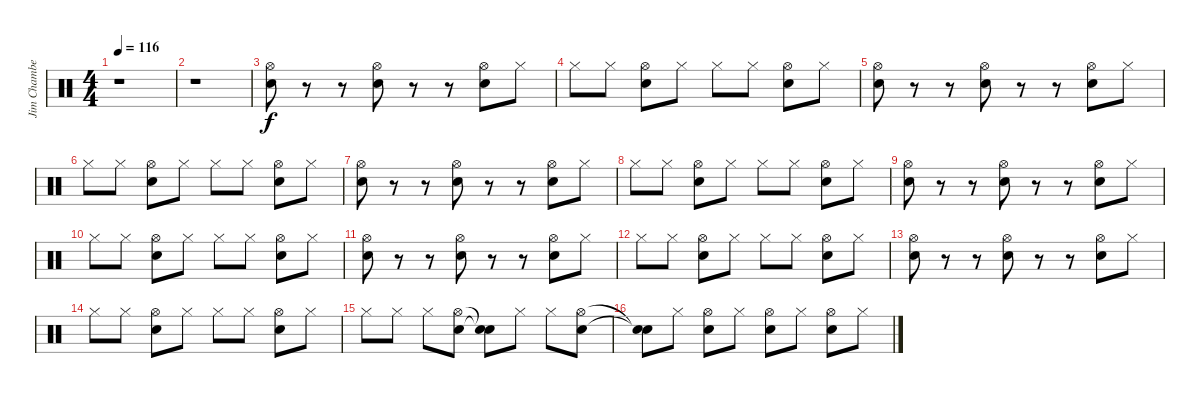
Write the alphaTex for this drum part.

\track ("Jim Chamberlin" "Jim Chambe") {instrument percussion}
\staff {score}
\articulation defaults
\ts (4 4)
\tempo 116
\clef neutral
\ks c
r.1{dy f} |
r.1 |
("Hi-Hat (open)" "Snare (hit) 2").8 r.8 r.8 ("Hi-Hat (open)" "Snare (hit) 2").8 r.8 r.8 ("Hi-Hat (open)" "Snare (hit) 2").8 "Hi-Hat (closed)".8 |
"Hi-Hat (closed)".8 "Hi-Hat (closed)".8 ("Hi-Hat (open)" "Snare (hit) 2").8 "Hi-Hat (closed)".8 "Hi-Hat (closed)".8 "Hi-Hat (closed)".8 ("Hi-Hat (open)" "Snare (hit) 2").8 "Hi-Hat (closed)".8 |
("Hi-Hat (open)" "Snare (hit) 2").8 r.8 r.8 ("Hi-Hat (open)" "Snare (hit) 2").8 r.8 r.8 ("Hi-Hat (open)" "Snare (hit) 2").8 "Hi-Hat (closed)".8 |
"Hi-Hat (closed)".8 "Hi-Hat (closed)".8 ("Hi-Hat (open)" "Snare (hit) 2").8 "Hi-Hat (closed)".8 "Hi-Hat (closed)".8 "Hi-Hat (closed)".8 ("Hi-Hat (open)" "Snare (hit) 2").8 "Hi-Hat (closed)".8 |
("Hi-Hat (open)" "Snare (hit) 2").8 r.8 r.8 ("Hi-Hat (open)" "Snare (hit) 2").8 r.8 r.8 ("Hi-Hat (open)" "Snare (hit) 2").8 "Hi-Hat (closed)".8 |
"Hi-Hat (closed)".8 "Hi-Hat (closed)".8 ("Hi-Hat (open)" "Snare (hit) 2").8 "Hi-Hat (closed)".8 "Hi-Hat (closed)".8 "Hi-Hat (closed)".8 ("Hi-Hat (open)" "Snare (hit) 2").8 "Hi-Hat (closed)".8 |
("Hi-Hat (open)" "Snare (hit) 2").8 r.8 r.8 ("Hi-Hat (open)" "Snare (hit) 2").8 r.8 r.8 ("Hi-Hat (open)" "Snare (hit) 2").8 "Hi-Hat (closed)".8 |
"Hi-Hat (closed)".8 "Hi-Hat (closed)".8 ("Hi-Hat (open)" "Snare (hit) 2").8 "Hi-Hat (closed)".8 "Hi-Hat (closed)".8 "Hi-Hat (closed)".8 ("Hi-Hat (open)" "Snare (hit) 2").8 "Hi-Hat (closed)".8 |
("Hi-Hat (open)" "Snare (hit) 2").8 r.8 r.8 ("Hi-Hat (open)" "Snare (hit) 2").8 r.8 r.8 ("Hi-Hat (open)" "Snare (hit) 2").8 "Hi-Hat (closed)".8 |
"Hi-Hat (closed)".8 "Hi-Hat (closed)".8 ("Hi-Hat (open)" "Snare (hit) 2").8 "Hi-Hat (closed)".8 "Hi-Hat (closed)".8 "Hi-Hat (closed)".8 ("Hi-Hat (open)" "Snare (hit) 2").8 "Hi-Hat (closed)".8 |
("Hi-Hat (open)" "Snare (hit) 2").8 r.8 r.8 ("Hi-Hat (open)" "Snare (hit) 2").8 r.8 r.8 ("Hi-Hat (open)" "Snare (hit) 2").8 "Hi-Hat (closed)".8 |
"Hi-Hat (closed)".8 "Hi-Hat (closed)".8 ("Hi-Hat (open)" "Snare (hit) 2").8 "Hi-Hat (closed)".8 "Hi-Hat (closed)".8 "Hi-Hat (closed)".8 ("Hi-Hat (open)" "Snare (hit) 2").8 "Hi-Hat (closed)".8 |
"Hi-Hat (closed)".8 "Hi-Hat (closed)".8 "Hi-Hat (closed)".8 ("Snare (hit) 2" "Hi-Hat (open)").8 ("Snare (hit)"{t} "Snare (hit)"{t}).8 "Hi-Hat (closed)".8 "Hi-Hat (closed)".8 ("Snare (hit) 2" "Hi-Hat (open)").8 |
("Snare (hit)"{t} "Snare (hit)"{t}).8 "Hi-Hat (closed)".8 ("Snare (hit) 2" "Hi-Hat (open)").8 "Hi-Hat (closed)".8 ("Snare (hit) 2" "Hi-Hat (open)").8 "Hi-Hat (closed)".8 ("Snare (hit) 2" "Hi-Hat (open)").8 "Hi-Hat (closed)".8
